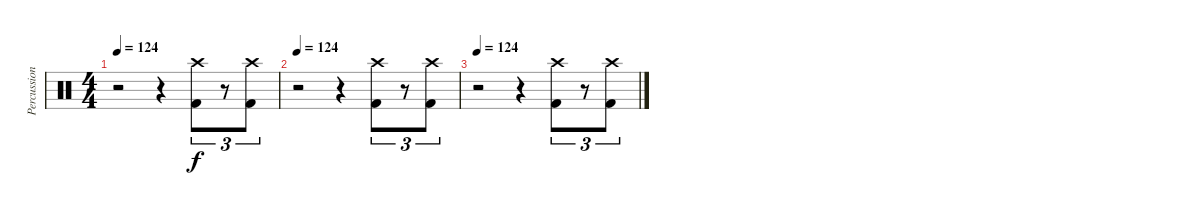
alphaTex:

\track ("Percussion" "Percussion") {instrument percussion}
\staff {score}
\articulation defaults
\ts (4 4)
\tempo 124
\clef neutral
\ks c
r.2{dy f} r.4 ("Crash high (hit)" "Kick (hit) 2").8{tu (3 2)} r.8{tu (3 2)} ("Crash high (hit)" "Kick (hit) 2").8{tu (3 2)} |
\tempo 124
r.2 r.4 ("Crash high (hit)" "Kick (hit) 2").8{tu (3 2)} r.8{tu (3 2)} ("Crash high (hit)" "Kick (hit) 2").8{tu (3 2)} |
\tempo 124
r.2 r.4 ("Crash high (hit)" "Kick (hit) 2").8{tu (3 2)} r.8{tu (3 2)} ("Crash high (hit)" "Kick (hit) 2").8{tu (3 2)}
